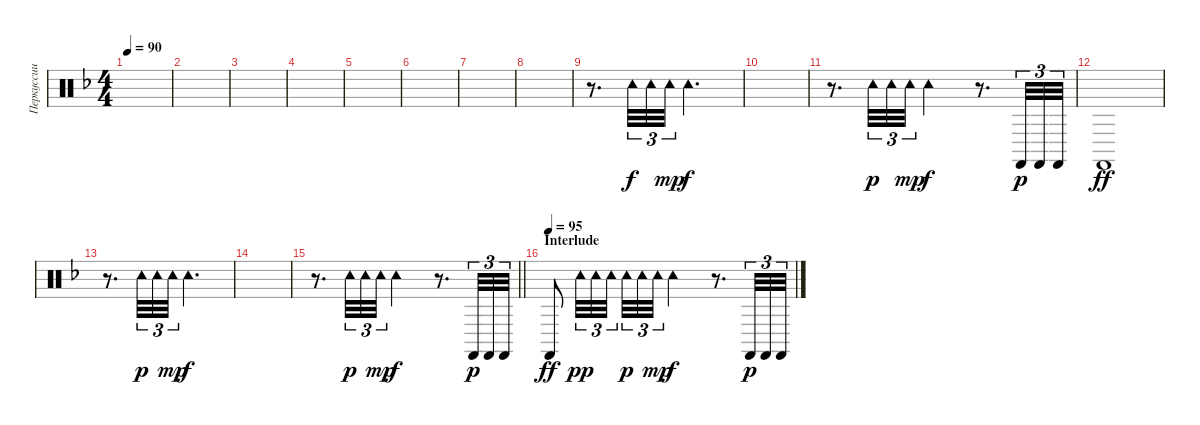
\track ("Перкуссии" "Перкуссии") {instrument percussion}
\staff {score}
\articulation defaults
\ts (4 4)
\tempo 90
\clef neutral
\ks dminor
|
|
|
|
|
|
|
|
r.8{d} "Tambourine (hit)".32{tu (3 2)} "Tambourine (hit)".32{tu (3 2)} "Tambourine (hit)".32{tu (3 2) dy mp} "Tambourine (hit)".2{d dy f} |
|
r.8{d} "Tambourine (hit)".32{tu (3 2) dy p} "Tambourine (hit)".32{tu (3 2)} "Tambourine (hit)".32{tu (3 2) dy mp} "Tambourine (hit)".2{dy f} r.8{d} "Castanets (hit)".32{tu (3 2) dy p} "Castanets (hit)".32{tu (3 2)} "Castanets (hit)".32{tu (3 2)} |
"Castanets (hit)".1{dy ff} |
r.8{d} "Tambourine (hit)".32{tu (3 2) dy p} "Tambourine (hit)".32{tu (3 2)} "Tambourine (hit)".32{tu (3 2) dy mp} "Tambourine (hit)".2{d dy f} |
|
\barLineRight lightlight
r.8{d} "Tambourine (hit)".32{tu (3 2) dy p} "Tambourine (hit)".32{tu (3 2)} "Tambourine (hit)".32{tu (3 2) dy mp} "Tambourine (hit)".2{dy f} r.8{d} "Castanets (hit)".32{tu (3 2) dy p} "Castanets (hit)".32{tu (3 2)} "Castanets (hit)".32{tu (3 2)} |
\section ("" "Interlude")
\tempo (95)
"Castanets (hit)".8{dy ff} "Tambourine (hit)".32{tu (3 2) dy pp} "Tambourine (hit)".32{tu (3 2)} "Tambourine (hit)".32{tu (3 2) beam splitsecondary} "Tambourine (hit)".32{tu (3 2) dy p} "Tambourine (hit)".32{tu (3 2)} "Tambourine (hit)".32{tu (3 2) dy mp} "Tambourine (hit)".2{dy f} r.8{d} "Castanets (hit)".32{tu (3 2) dy p} "Castanets (hit)".32{tu (3 2)} "Castanets (hit)".32{tu (3 2)}
